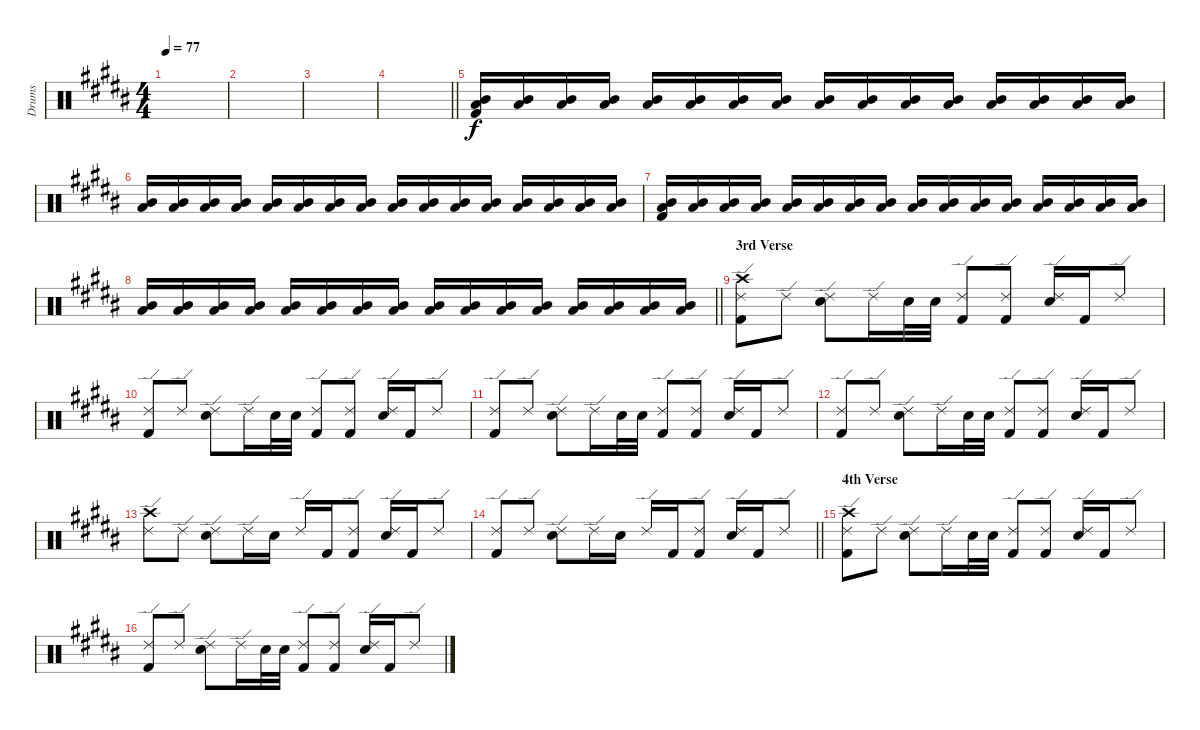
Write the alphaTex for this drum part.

\track ("Drums" "Drums") {instrument percussion}
\staff {score}
\articulation defaults
\ts (4 4)
\tempo 77
\clef neutral
\ks g#minor
|
|
|
\barLineRight lightlight
|
\section ("" "")
("Kick (hit) 2" "Mid Tom (hit)" "Low Tom (hit)").16 ("Mid Tom (hit)" "Low Tom (hit)").16 ("Mid Tom (hit)" "Low Tom (hit)").16 ("Mid Tom (hit)" "Low Tom (hit)").16 ("Mid Tom (hit)" "Low Tom (hit)").16 ("Mid Tom (hit)" "Low Tom (hit)").16 ("Mid Tom (hit)" "Low Tom (hit)").16 ("Mid Tom (hit)" "Low Tom (hit)").16 ("Mid Tom (hit)" "Low Tom (hit)").16 ("Mid Tom (hit)" "Low Tom (hit)").16 ("Mid Tom (hit)" "Low Tom (hit)").16 ("Mid Tom (hit)" "Low Tom (hit)").16 ("Mid Tom (hit)" "Low Tom (hit)").16 ("Mid Tom (hit)" "Low Tom (hit)").16 ("Mid Tom (hit)" "Low Tom (hit)").16 ("Mid Tom (hit)" "Low Tom (hit)").16 |
("Mid Tom (hit)" "Low Tom (hit)").16 ("Mid Tom (hit)" "Low Tom (hit)").16 ("Mid Tom (hit)" "Low Tom (hit)").16 ("Mid Tom (hit)" "Low Tom (hit)").16 ("Mid Tom (hit)" "Low Tom (hit)").16 ("Mid Tom (hit)" "Low Tom (hit)").16 ("Mid Tom (hit)" "Low Tom (hit)").16 ("Mid Tom (hit)" "Low Tom (hit)").16 ("Mid Tom (hit)" "Low Tom (hit)").16 ("Mid Tom (hit)" "Low Tom (hit)").16 ("Mid Tom (hit)" "Low Tom (hit)").16 ("Mid Tom (hit)" "Low Tom (hit)").16 ("Mid Tom (hit)" "Low Tom (hit)").16 ("Mid Tom (hit)" "Low Tom (hit)").16 ("Mid Tom (hit)" "Low Tom (hit)").16 ("Mid Tom (hit)" "Low Tom (hit)").16 |
("Kick (hit) 2" "Mid Tom (hit)" "Low Tom (hit)").16 ("Mid Tom (hit)" "Low Tom (hit)").16 ("Mid Tom (hit)" "Low Tom (hit)").16 ("Mid Tom (hit)" "Low Tom (hit)").16 ("Mid Tom (hit)" "Low Tom (hit)").16 ("Mid Tom (hit)" "Low Tom (hit)").16 ("Mid Tom (hit)" "Low Tom (hit)").16 ("Mid Tom (hit)" "Low Tom (hit)").16 ("Mid Tom (hit)" "Low Tom (hit)").16 ("Mid Tom (hit)" "Low Tom (hit)").16 ("Mid Tom (hit)" "Low Tom (hit)").16 ("Mid Tom (hit)" "Low Tom (hit)").16 ("Mid Tom (hit)" "Low Tom (hit)").16 ("Mid Tom (hit)" "Low Tom (hit)").16 ("Mid Tom (hit)" "Low Tom (hit)").16 ("Mid Tom (hit)" "Low Tom (hit)").16 |
\barLineRight lightlight
("Mid Tom (hit)" "Low Tom (hit)").16 ("Mid Tom (hit)" "Low Tom (hit)").16 ("Mid Tom (hit)" "Low Tom (hit)").16 ("Mid Tom (hit)" "Low Tom (hit)").16 ("Mid Tom (hit)" "Low Tom (hit)").16 ("Mid Tom (hit)" "Low Tom (hit)").16 ("Mid Tom (hit)" "Low Tom (hit)").16 ("Mid Tom (hit)" "Low Tom (hit)").16 ("Mid Tom (hit)" "Low Tom (hit)").16 ("Mid Tom (hit)" "Low Tom (hit)").16 ("Mid Tom (hit)" "Low Tom (hit)").16 ("Mid Tom (hit)" "Low Tom (hit)").16 ("Mid Tom (hit)" "Low Tom (hit)").16 ("Mid Tom (hit)" "Low Tom (hit)").16 ("Mid Tom (hit)" "Low Tom (hit)").16 ("Mid Tom (hit)" "Low Tom (hit)").16 |
\section ("" "3rd Verse")
("Kick (hit) 2" "Ride (edge) 2" "Crash high (hit)").8 "Ride (edge) 2".8 ("Ride (edge) 2" "Snare (hit) 2").8 "Ride (edge) 2".16 "Snare (hit) 2".32 "Snare (hit) 2".32 ("Kick (hit) 2" "Ride (edge) 2").8 ("Kick (hit) 2" "Ride (edge) 2").8 ("Ride (edge) 2" "Snare (hit) 2").16 "Kick (hit) 2".16 "Ride (edge) 2".8 |
("Kick (hit) 2" "Ride (edge) 2").8 "Ride (edge) 2".8 ("Ride (edge) 2" "Snare (hit) 2").8 "Ride (edge) 2".16 "Snare (hit) 2".32 "Snare (hit) 2".32 ("Kick (hit) 2" "Ride (edge) 2").8 ("Kick (hit) 2" "Ride (edge) 2").8 ("Ride (edge) 2" "Snare (hit) 2").16 "Kick (hit) 2".16 "Ride (edge) 2".8 |
("Kick (hit) 2" "Ride (edge) 2").8 "Ride (edge) 2".8 ("Ride (edge) 2" "Snare (hit) 2").8 "Ride (edge) 2".16 "Snare (hit) 2".32 "Snare (hit) 2".32 ("Kick (hit) 2" "Ride (edge) 2").8 ("Kick (hit) 2" "Ride (edge) 2").8 ("Ride (edge) 2" "Snare (hit) 2").16 "Kick (hit) 2".16 "Ride (edge) 2".8 |
("Kick (hit) 2" "Ride (edge) 2").8 "Ride (edge) 2".8 ("Ride (edge) 2" "Snare (hit) 2").8 "Ride (edge) 2".16 "Snare (hit) 2".32 "Snare (hit) 2".32 ("Kick (hit) 2" "Ride (edge) 2").8 ("Kick (hit) 2" "Ride (edge) 2").8 ("Ride (edge) 2" "Snare (hit) 2").16 "Kick (hit) 2".16 "Ride (edge) 2".8 |
("Ride (edge) 2" "Crash high (hit)").8 "Ride (edge) 2".8 ("Ride (edge) 2" "Snare (hit) 2").8 "Ride (edge) 2".16 "Snare (hit) 2".16 "Ride (edge) 2".16 "Kick (hit) 2".16 ("Kick (hit) 2" "Ride (edge) 2").8 ("Ride (edge) 2" "Snare (hit) 2").16 "Kick (hit) 2".16 "Ride (edge) 2".8 |
\barLineRight lightlight
("Kick (hit) 2" "Ride (edge) 2").8 "Ride (edge) 2".8 ("Ride (edge) 2" "Snare (hit) 2").8 "Ride (edge) 2".16 "Snare (hit) 2".16 "Ride (edge) 2".16 "Kick (hit) 2".16 ("Kick (hit) 2" "Ride (edge) 2").8 ("Ride (edge) 2" "Snare (hit) 2").16 "Kick (hit) 2".16 "Ride (edge) 2".8 |
\section ("" "4th Verse")
("Kick (hit) 2" "Ride (edge) 2" "Crash high (hit)").8 "Ride (edge) 2".8 ("Ride (edge) 2" "Snare (hit) 2").8 "Ride (edge) 2".16 "Snare (hit) 2".32 "Snare (hit) 2".32 ("Kick (hit) 2" "Ride (edge) 2").8 ("Kick (hit) 2" "Ride (edge) 2").8 ("Ride (edge) 2" "Snare (hit) 2").16 "Kick (hit) 2".16 "Ride (edge) 2".8 |
("Kick (hit) 2" "Ride (edge) 2").8 "Ride (edge) 2".8 ("Ride (edge) 2" "Snare (hit) 2").8 "Ride (edge) 2".16 "Snare (hit) 2".32 "Snare (hit) 2".32 ("Kick (hit) 2" "Ride (edge) 2").8 ("Kick (hit) 2" "Ride (edge) 2").8 ("Ride (edge) 2" "Snare (hit) 2").16 "Kick (hit) 2".16 "Ride (edge) 2".8
